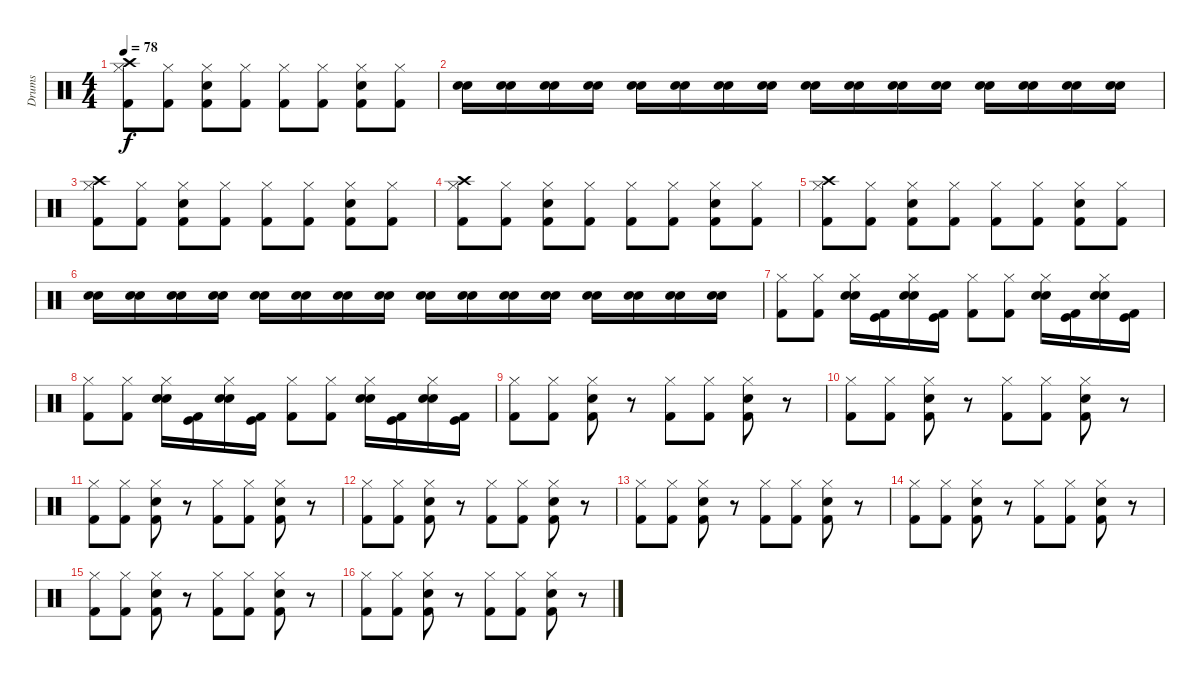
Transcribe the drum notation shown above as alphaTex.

\track ("Drums" "Drums") {instrument percussion}
\staff {score}
\articulation defaults
\ts (4 4)
\tempo 78
\clef neutral
\ks c
("Crash high (hit)" "Hi-Hat (closed)" "Kick (hit) 2").8{dy f} ("Hi-Hat (closed)" "Kick (hit) 2").8 ("Hi-Hat (closed)" "Kick (hit) 2" "Electric Snare (hit)").8 ("Hi-Hat (closed)" "Kick (hit) 2").8 ("Hi-Hat (closed)" "Kick (hit) 2").8 ("Hi-Hat (closed)" "Kick (hit) 2").8 ("Hi-Hat (closed)" "Kick (hit) 2" "Electric Snare (hit)").8 ("Hi-Hat (closed)" "Kick (hit) 2").8 |
("Electric Snare (hit)" "Snare (hit) 2").16 ("Electric Snare (hit)" "Snare (hit) 2").16 ("Electric Snare (hit)" "Snare (hit) 2").16 ("Electric Snare (hit)" "Snare (hit) 2").16 ("Electric Snare (hit)" "Snare (hit) 2").16 ("Electric Snare (hit)" "Snare (hit) 2").16 ("Electric Snare (hit)" "Snare (hit) 2").16 ("Electric Snare (hit)" "Snare (hit) 2").16 ("Electric Snare (hit)" "Snare (hit) 2").16 ("Electric Snare (hit)" "Snare (hit) 2").16 ("Electric Snare (hit)" "Snare (hit) 2").16 ("Electric Snare (hit)" "Snare (hit) 2").16 ("Electric Snare (hit)" "Snare (hit) 2").16 ("Electric Snare (hit)" "Snare (hit) 2").16 ("Electric Snare (hit)" "Snare (hit) 2").16 ("Electric Snare (hit)" "Snare (hit) 2").16 |
("Crash high (hit)" "Hi-Hat (closed)" "Kick (hit) 2").8 ("Hi-Hat (closed)" "Kick (hit) 2").8 ("Hi-Hat (closed)" "Kick (hit) 2" "Electric Snare (hit)").8 ("Hi-Hat (closed)" "Kick (hit) 2").8 ("Hi-Hat (closed)" "Kick (hit) 2").8 ("Hi-Hat (closed)" "Kick (hit) 2").8 ("Hi-Hat (closed)" "Kick (hit) 2" "Electric Snare (hit)").8 ("Hi-Hat (closed)" "Kick (hit) 2").8 |
("Crash high (hit)" "Hi-Hat (closed)" "Kick (hit) 2").8 ("Hi-Hat (closed)" "Kick (hit) 2").8 ("Hi-Hat (closed)" "Kick (hit) 2" "Electric Snare (hit)").8 ("Hi-Hat (closed)" "Kick (hit) 2").8 ("Hi-Hat (closed)" "Kick (hit) 2").8 ("Hi-Hat (closed)" "Kick (hit) 2").8 ("Hi-Hat (closed)" "Kick (hit) 2" "Electric Snare (hit)").8 ("Hi-Hat (closed)" "Kick (hit) 2").8 |
("Crash high (hit)" "Hi-Hat (closed)" "Kick (hit) 2").8 ("Hi-Hat (closed)" "Kick (hit) 2").8 ("Hi-Hat (closed)" "Kick (hit) 2" "Electric Snare (hit)").8 ("Hi-Hat (closed)" "Kick (hit) 2").8 ("Hi-Hat (closed)" "Kick (hit) 2").8 ("Hi-Hat (closed)" "Kick (hit) 2").8 ("Hi-Hat (closed)" "Kick (hit) 2" "Electric Snare (hit)").8 ("Hi-Hat (closed)" "Kick (hit) 2").8 |
("Electric Snare (hit)" "Snare (hit) 2").16 ("Electric Snare (hit)" "Snare (hit) 2").16 ("Electric Snare (hit)" "Snare (hit) 2").16 ("Electric Snare (hit)" "Snare (hit) 2").16 ("Electric Snare (hit)" "Snare (hit) 2").16 ("Electric Snare (hit)" "Snare (hit) 2").16 ("Electric Snare (hit)" "Snare (hit) 2").16 ("Electric Snare (hit)" "Snare (hit) 2").16 ("Electric Snare (hit)" "Snare (hit) 2").16 ("Electric Snare (hit)" "Snare (hit) 2").16 ("Electric Snare (hit)" "Snare (hit) 2").16 ("Electric Snare (hit)" "Snare (hit) 2").16 ("Electric Snare (hit)" "Snare (hit) 2").16 ("Electric Snare (hit)" "Snare (hit) 2").16 ("Electric Snare (hit)" "Snare (hit) 2").16 ("Electric Snare (hit)" "Snare (hit) 2").16 |
("Hi-Hat (closed)" "Kick (hit) 2").8 ("Hi-Hat (closed)" "Kick (hit) 2").8 ("Hi-Hat (closed)" "Snare (hit) 2" "Electric Snare (hit)").16 ("Kick (hit) 2" "Kick (hit)").16 ("Hi-Hat (closed)" "Snare (hit) 2" "Electric Snare (hit)").16 ("Kick (hit) 2" "Kick (hit)").16 ("Hi-Hat (closed)" "Kick (hit) 2").8 ("Hi-Hat (closed)" "Kick (hit) 2").8 ("Hi-Hat (closed)" "Snare (hit) 2" "Electric Snare (hit)").16 ("Kick (hit) 2" "Kick (hit)").16 ("Hi-Hat (closed)" "Snare (hit) 2" "Electric Snare (hit)").16 ("Kick (hit) 2" "Kick (hit)").16 |
("Hi-Hat (closed)" "Kick (hit) 2").8 ("Hi-Hat (closed)" "Kick (hit) 2").8 ("Hi-Hat (closed)" "Snare (hit) 2" "Electric Snare (hit)").16 ("Kick (hit) 2" "Kick (hit)").16 ("Hi-Hat (closed)" "Snare (hit) 2" "Electric Snare (hit)").16 ("Kick (hit) 2" "Kick (hit)").16 ("Hi-Hat (closed)" "Kick (hit) 2").8 ("Hi-Hat (closed)" "Kick (hit) 2").8 ("Hi-Hat (closed)" "Snare (hit) 2" "Electric Snare (hit)").16 ("Kick (hit) 2" "Kick (hit)").16 ("Hi-Hat (closed)" "Snare (hit) 2" "Electric Snare (hit)").16 ("Kick (hit) 2" "Kick (hit)").16 |
("Hi-Hat (closed)" "Kick (hit) 2").8 ("Hi-Hat (closed)" "Kick (hit) 2").8 ("Hi-Hat (closed)" "Kick (hit) 2" "Electric Snare (hit)").8 r.8 ("Hi-Hat (closed)" "Kick (hit) 2").8 ("Hi-Hat (closed)" "Kick (hit) 2").8 ("Hi-Hat (closed)" "Kick (hit) 2" "Electric Snare (hit)").8 r.8 |
("Hi-Hat (closed)" "Kick (hit) 2").8 ("Hi-Hat (closed)" "Kick (hit) 2").8 ("Hi-Hat (closed)" "Kick (hit) 2" "Electric Snare (hit)").8 r.8 ("Hi-Hat (closed)" "Kick (hit) 2").8 ("Hi-Hat (closed)" "Kick (hit) 2").8 ("Hi-Hat (closed)" "Kick (hit) 2" "Electric Snare (hit)").8 r.8 |
("Hi-Hat (closed)" "Kick (hit) 2").8 ("Hi-Hat (closed)" "Kick (hit) 2").8 ("Hi-Hat (closed)" "Kick (hit) 2" "Electric Snare (hit)").8 r.8 ("Hi-Hat (closed)" "Kick (hit) 2").8 ("Hi-Hat (closed)" "Kick (hit) 2").8 ("Hi-Hat (closed)" "Kick (hit) 2" "Electric Snare (hit)").8 r.8 |
("Hi-Hat (closed)" "Kick (hit) 2").8 ("Hi-Hat (closed)" "Kick (hit) 2").8 ("Hi-Hat (closed)" "Kick (hit) 2" "Electric Snare (hit)").8 r.8 ("Hi-Hat (closed)" "Kick (hit) 2").8 ("Hi-Hat (closed)" "Kick (hit) 2").8 ("Hi-Hat (closed)" "Kick (hit) 2" "Electric Snare (hit)").8 r.8 |
("Hi-Hat (closed)" "Kick (hit) 2").8 ("Hi-Hat (closed)" "Kick (hit) 2").8 ("Hi-Hat (closed)" "Kick (hit) 2" "Electric Snare (hit)").8 r.8 ("Hi-Hat (closed)" "Kick (hit) 2").8 ("Hi-Hat (closed)" "Kick (hit) 2").8 ("Hi-Hat (closed)" "Kick (hit) 2" "Electric Snare (hit)").8 r.8 |
("Hi-Hat (closed)" "Kick (hit) 2").8 ("Hi-Hat (closed)" "Kick (hit) 2").8 ("Hi-Hat (closed)" "Kick (hit) 2" "Electric Snare (hit)").8 r.8 ("Hi-Hat (closed)" "Kick (hit) 2").8 ("Hi-Hat (closed)" "Kick (hit) 2").8 ("Hi-Hat (closed)" "Kick (hit) 2" "Electric Snare (hit)").8 r.8 |
("Hi-Hat (closed)" "Kick (hit) 2").8 ("Hi-Hat (closed)" "Kick (hit) 2").8 ("Hi-Hat (closed)" "Kick (hit) 2" "Electric Snare (hit)").8 r.8 ("Hi-Hat (closed)" "Kick (hit) 2").8 ("Hi-Hat (closed)" "Kick (hit) 2").8 ("Hi-Hat (closed)" "Kick (hit) 2" "Electric Snare (hit)").8 r.8 |
("Hi-Hat (closed)" "Kick (hit) 2").8 ("Hi-Hat (closed)" "Kick (hit) 2").8 ("Hi-Hat (closed)" "Kick (hit) 2" "Electric Snare (hit)").8 r.8 ("Hi-Hat (closed)" "Kick (hit) 2").8 ("Hi-Hat (closed)" "Kick (hit) 2").8 ("Hi-Hat (closed)" "Kick (hit) 2" "Electric Snare (hit)").8 r.8
